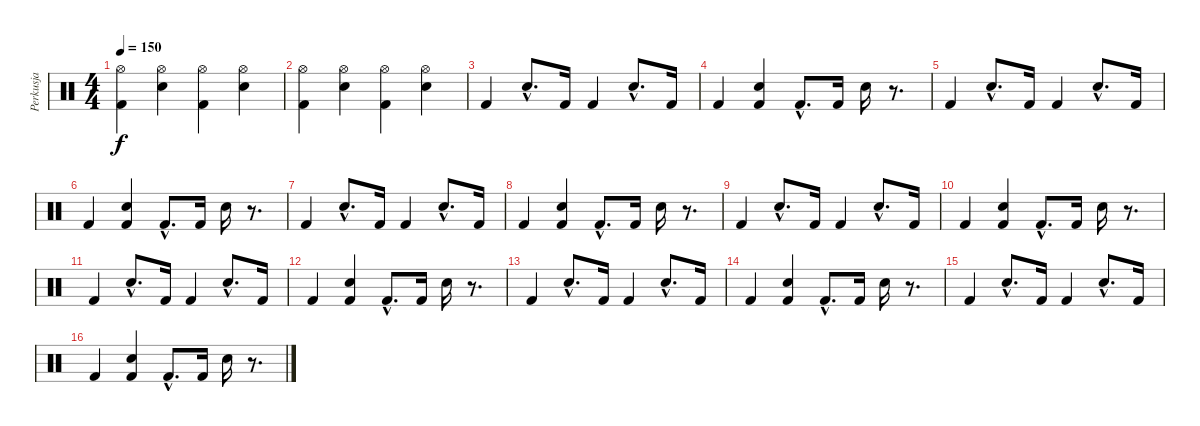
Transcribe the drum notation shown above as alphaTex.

\track ("Perkusja" "Perkusja") {instrument percussion}
\staff {score}
\articulation defaults
\ts (4 4)
\tempo 150
\clef neutral
\ks c
("Hi-Hat (open)" "Kick (hit) 2").4{dy f} ("Hi-Hat (open)" "Electric Snare (hit)").4 ("Hi-Hat (open)" "Kick (hit) 2").4 ("Hi-Hat (open)" "Electric Snare (hit)").4 |
("Hi-Hat (open)" "Kick (hit) 2").4 ("Hi-Hat (open)" "Electric Snare (hit)").4 ("Hi-Hat (open)" "Kick (hit) 2").4 ("Hi-Hat (open)" "Electric Snare (hit)").4 |
"Kick (hit) 2".4 "Electric Snare (hit)"{hac}.8{d} "Kick (hit) 2".16 "Kick (hit) 2".4 "Electric Snare (hit)"{hac}.8{d} "Kick (hit) 2".16 |
"Kick (hit) 2".4 ("Electric Snare (hit)" "Kick (hit) 2").4 "Kick (hit) 2"{hac}.8{d} "Kick (hit) 2".16 "Electric Snare (hit)".16 r.8{d} |
"Kick (hit) 2".4 "Electric Snare (hit)"{hac}.8{d} "Kick (hit) 2".16 "Kick (hit) 2".4 "Electric Snare (hit)"{hac}.8{d} "Kick (hit) 2".16 |
"Kick (hit) 2".4 ("Electric Snare (hit)" "Kick (hit) 2").4 "Kick (hit) 2"{hac}.8{d} "Kick (hit) 2".16 "Electric Snare (hit)".16 r.8{d} |
"Kick (hit) 2".4 "Electric Snare (hit)"{hac}.8{d} "Kick (hit) 2".16 "Kick (hit) 2".4 "Electric Snare (hit)"{hac}.8{d} "Kick (hit) 2".16 |
"Kick (hit) 2".4 ("Electric Snare (hit)" "Kick (hit) 2").4 "Kick (hit) 2"{hac}.8{d} "Kick (hit) 2".16 "Electric Snare (hit)".16 r.8{d} |
"Kick (hit) 2".4 "Electric Snare (hit)"{hac}.8{d} "Kick (hit) 2".16 "Kick (hit) 2".4 "Electric Snare (hit)"{hac}.8{d} "Kick (hit) 2".16 |
"Kick (hit) 2".4 ("Electric Snare (hit)" "Kick (hit) 2").4 "Kick (hit) 2"{hac}.8{d} "Kick (hit) 2".16 "Electric Snare (hit)".16 r.8{d} |
"Kick (hit) 2".4 "Electric Snare (hit)"{hac}.8{d} "Kick (hit) 2".16 "Kick (hit) 2".4 "Electric Snare (hit)"{hac}.8{d} "Kick (hit) 2".16 |
"Kick (hit) 2".4 ("Electric Snare (hit)" "Kick (hit) 2").4 "Kick (hit) 2"{hac}.8{d} "Kick (hit) 2".16 "Electric Snare (hit)".16 r.8{d} |
"Kick (hit) 2".4 "Electric Snare (hit)"{hac}.8{d} "Kick (hit) 2".16 "Kick (hit) 2".4 "Electric Snare (hit)"{hac}.8{d} "Kick (hit) 2".16 |
"Kick (hit) 2".4 ("Electric Snare (hit)" "Kick (hit) 2").4 "Kick (hit) 2"{hac}.8{d} "Kick (hit) 2".16 "Electric Snare (hit)".16 r.8{d} |
"Kick (hit) 2".4 "Electric Snare (hit)"{hac}.8{d} "Kick (hit) 2".16 "Kick (hit) 2".4 "Electric Snare (hit)"{hac}.8{d} "Kick (hit) 2".16 |
"Kick (hit) 2".4 ("Electric Snare (hit)" "Kick (hit) 2").4 "Kick (hit) 2"{hac}.8{d} "Kick (hit) 2".16 "Electric Snare (hit)".16 r.8{d}
